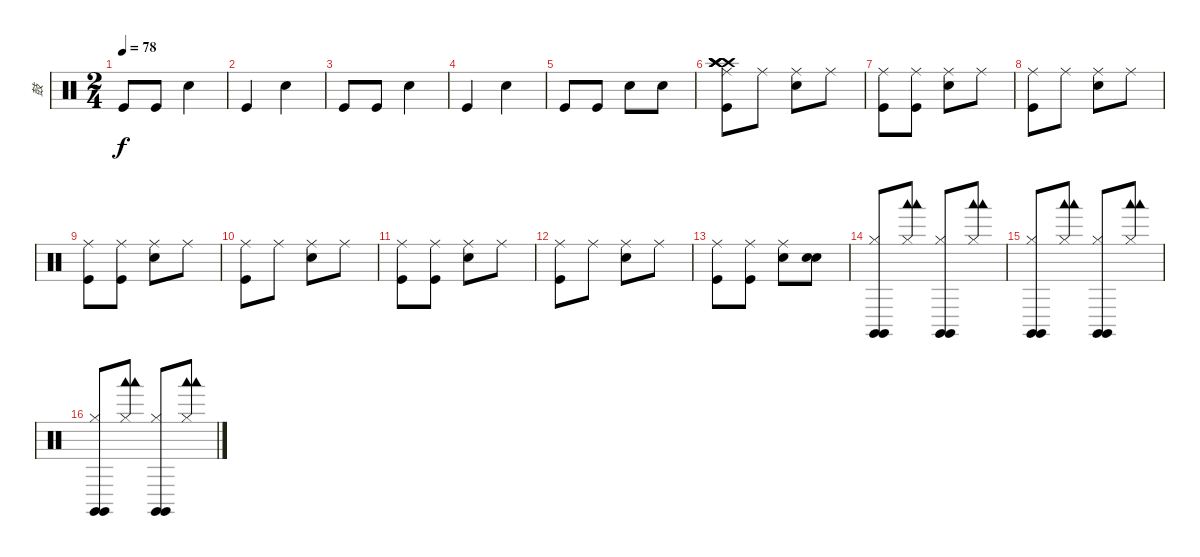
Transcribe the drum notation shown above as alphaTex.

\track ("鼓" "鼓") {instrument percussion}
\staff {score}
\articulation defaults
\ts (2 4)
\tempo 78
\clef neutral
\ks c "Kick (hit)".8{dy f} "Kick (hit)".8 "Metronome (bell)".4
|
"Kick (hit)".4 "Metronome (bell)".4 |
"Kick (hit)".8 "Kick (hit)".8 "Metronome (bell)".4 |
"Kick (hit)".4 "Metronome (bell)".4 |
"Kick (hit)".8 "Kick (hit)".8 "Metronome (bell)".8 "Metronome (bell)".8 |
("Ride (middle)" "Kick (hit)" "Crash high (hit)" "Crash high (hit)" "Crash high (hit)" "Crash high (hit)").8 "Ride (middle)".8 ("Ride (middle)" "Metronome (bell)").8 "Ride (middle)".8 |
("Ride (middle)" "Kick (hit)").8 ("Ride (middle)" "Kick (hit)").8 ("Ride (middle)" "Metronome (bell)").8 "Ride (middle)".8 |
("Ride (middle)" "Kick (hit)").8 "Ride (middle)".8 ("Ride (middle)" "Metronome (bell)").8 "Ride (middle)".8 |
("Ride (middle)" "Kick (hit)").8 ("Ride (middle)" "Kick (hit)").8 ("Ride (middle)" "Metronome (bell)").8 "Ride (middle)".8 |
("Ride (middle)" "Kick (hit)").8 "Ride (middle)".8 ("Ride (middle)" "Metronome (bell)").8 "Ride (middle)".8 |
("Ride (middle)" "Kick (hit)").8 ("Ride (middle)" "Kick (hit)").8 ("Ride (middle)" "Metronome (bell)").8 "Ride (middle)".8 |
("Ride (middle)" "Kick (hit)").8 "Ride (middle)".8 ("Ride (middle)" "Metronome (bell)").8 "Ride (middle)".8 |
("Ride (middle)" "Kick (hit)").8 ("Ride (middle)" "Kick (hit)").8 ("Ride (middle)" "Metronome (bell)").8 ("Snare (hit)" "Metronome (bell)").8 |
("Hi-Hat (closed)" "Claves (hit)" "Claves (hit)").8 ("Hi-Hat (closed)" "Woodblock low (hit)" "Woodblock low (hit)").8 ("Hi-Hat (closed)" "Claves (hit)" "Claves (hit)").8 ("Hi-Hat (closed)" "Woodblock low (hit)" "Woodblock low (hit)").8 |
("Hi-Hat (closed)" "Claves (hit)" "Claves (hit)").8 ("Hi-Hat (closed)" "Woodblock low (hit)" "Woodblock low (hit)").8 ("Hi-Hat (closed)" "Claves (hit)" "Claves (hit)").8 ("Hi-Hat (closed)" "Woodblock low (hit)" "Woodblock low (hit)").8 |
("Hi-Hat (closed)" "Claves (hit)" "Claves (hit)").8 ("Hi-Hat (closed)" "Woodblock low (hit)" "Woodblock low (hit)").8 ("Hi-Hat (closed)" "Claves (hit)" "Claves (hit)").8 ("Hi-Hat (closed)" "Woodblock low (hit)" "Woodblock low (hit)").8
